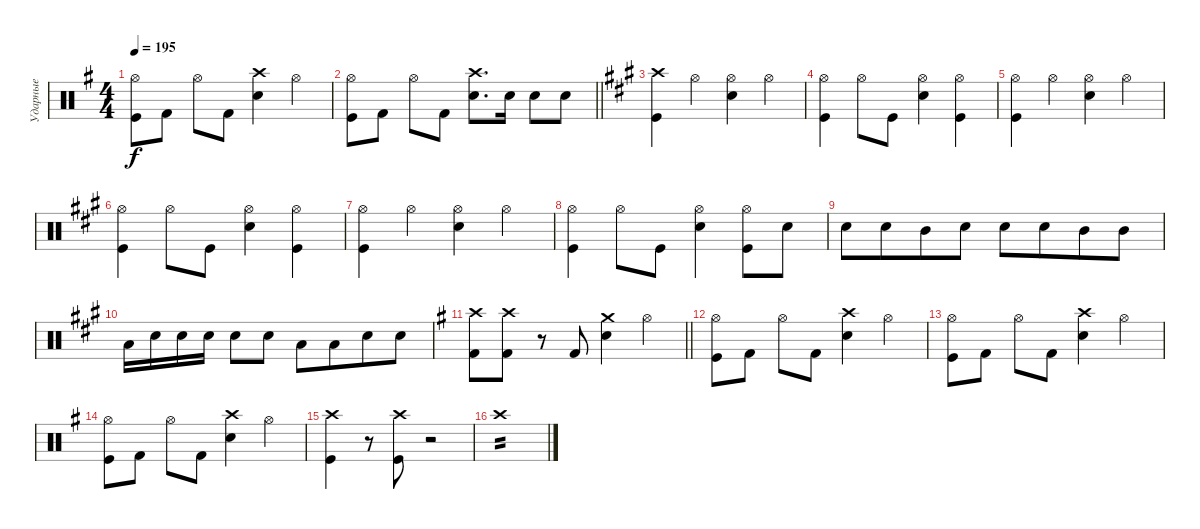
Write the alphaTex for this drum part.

\track ("Ударные" "Ударные") {instrument percussion}
\staff {score}
\articulation defaults
\ts (4 4)
\tempo 195
\clef neutral
\ks eminor
("Kick (hit)" "Hi-Hat (open)").8{dy f} "Kick (hit) 2".8 "Hi-Hat (open)".8 "Kick (hit) 2".8 ("Snare (hit) 2" "Crash high (hit)").4 "Hi-Hat (open)".4 |
\barLineRight lightlight
("Kick (hit)" "Hi-Hat (open)").8 "Kick (hit) 2".8 "Hi-Hat (open)".8 "Kick (hit) 2".8 ("Snare (hit) 2" "Crash high (hit)").8{d} "Snare (hit) 2".16 "Snare (hit) 2".8 "Snare (hit) 2".8 |
\section ("" "")
\ks f#minor
("Kick (hit)" "Crash high (hit)").4 "Hi-Hat (open)".4 ("Snare (hit) 2" "Hi-Hat (open)").4 "Hi-Hat (open)".4 |
("Kick (hit)" "Hi-Hat (open)").4 "Hi-Hat (open)".8 "Kick (hit)".8 ("Snare (hit) 2" "Hi-Hat (open)").4 ("Kick (hit)" "Hi-Hat (open)").4 |
("Kick (hit)" "Hi-Hat (open)").4 "Hi-Hat (open)".4 ("Snare (hit) 2" "Hi-Hat (open)").4 "Hi-Hat (open)".4 |
("Kick (hit)" "Hi-Hat (open)").4 "Hi-Hat (open)".8 "Kick (hit)".8 ("Snare (hit) 2" "Hi-Hat (open)").4 ("Kick (hit)" "Hi-Hat (open)").4 |
("Kick (hit)" "Hi-Hat (open)").4 "Hi-Hat (open)".4 ("Snare (hit) 2" "Hi-Hat (open)").4 "Hi-Hat (open)".4 |
("Kick (hit)" "Hi-Hat (open)").4 "Hi-Hat (open)".8 "Kick (hit)".8 ("Snare (hit) 2" "Hi-Hat (open)").4{beam merge} ("Hi-Hat (open)" "Kick (hit)").8 "Snare (hit) 2".8 |
"Snare (hit) 2".8 "Snare (hit) 2".8{beam merge} "Mid Tom (hit)".8 "Snare (hit) 2".8 "Snare (hit) 2".8 "Snare (hit) 2".8{beam merge} "Mid Tom (hit)".8 "Mid Tom (hit)".8 |
"Low Tom (hit)".16 "Snare (hit) 2".16 "Snare (hit) 2".16 "Snare (hit) 2".16 "Snare (hit) 2".8 "Snare (hit) 2".8 "Low Tom (hit)".8 "Low Tom (hit)".8{beam merge} "Snare (hit) 2".8 "Snare (hit) 2".8 |
\barLineRight lightlight
\ks eminor
("Kick (hit) 2" "Crash high (hit)").8 ("Kick (hit) 2" "Crash high (hit)").8 r.8 "Kick (hit) 2".8 ("Snare (hit) 2" "Crash medium (hit)").4 "Hi-Hat (open)".4 |
\section ("" "")
("Kick (hit)" "Hi-Hat (open)").8 "Kick (hit) 2".8 "Hi-Hat (open)".8 "Kick (hit) 2".8 ("Snare (hit) 2" "Crash high (hit)").4 "Hi-Hat (open)".4 |
("Kick (hit)" "Hi-Hat (open)").8 "Kick (hit) 2".8 "Hi-Hat (open)".8 "Kick (hit) 2".8 ("Snare (hit) 2" "Crash high (hit)").4 "Hi-Hat (open)".4 |
("Kick (hit)" "Hi-Hat (open)").8 "Kick (hit) 2".8 "Hi-Hat (open)".8 "Kick (hit) 2".8 ("Snare (hit) 2" "Crash high (hit)").4 "Hi-Hat (open)".4 |
("Kick (hit)" "Crash high (hit)").4 r.8 ("Kick (hit)" "Crash high (hit)").8 r.2 |
"Crash high (hit)".1{tp 2}
